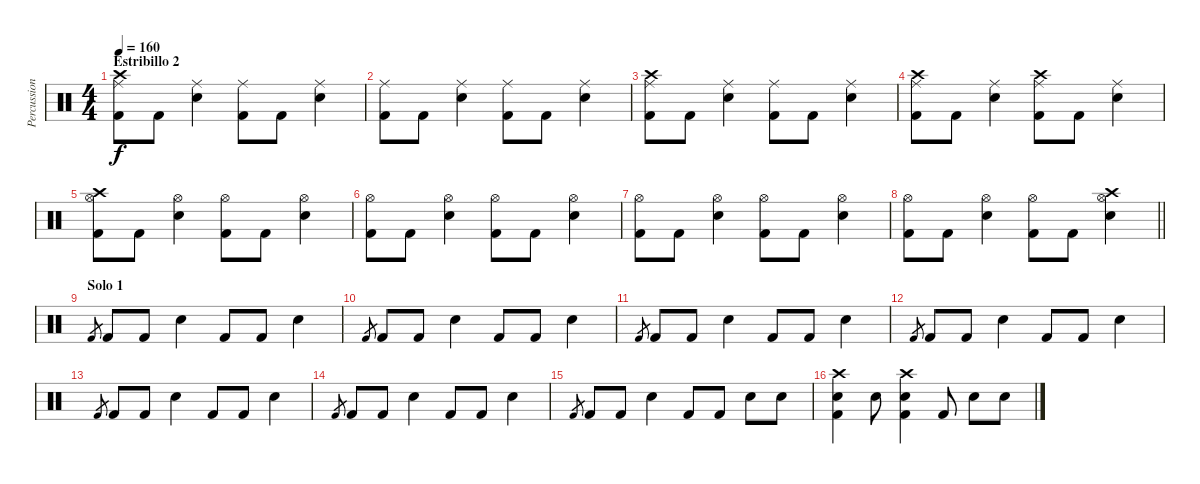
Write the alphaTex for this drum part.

\track ("Percussion" "Percussion") {instrument percussion}
\staff {score}
\articulation defaults
\ts (4 4)
\section ("" "Estribillo 2")
\tempo 160
\clef neutral
\ks c
("Ride (middle)" "Crash high (hit)" "Kick (hit) 2").8{dy f} "Kick (hit) 2".8 ("Ride (middle)" "Snare (hit) 2").4 ("Ride (middle)" "Kick (hit) 2").8 "Kick (hit) 2".8 ("Ride (middle)" "Snare (hit) 2").4 |
("Ride (middle)" "Kick (hit) 2").8 "Kick (hit) 2".8 ("Ride (middle)" "Snare (hit) 2").4 ("Ride (middle)" "Kick (hit) 2").8 "Kick (hit) 2".8 ("Ride (middle)" "Snare (hit) 2").4 |
("Ride (middle)" "Crash high (hit)" "Kick (hit) 2").8 "Kick (hit) 2".8 ("Ride (middle)" "Snare (hit) 2").4 ("Ride (middle)" "Kick (hit) 2").8 "Kick (hit) 2".8 ("Ride (middle)" "Snare (hit) 2").4 |
("Ride (middle)" "Crash high (hit)" "Kick (hit) 2").8 "Kick (hit) 2".8 ("Ride (middle)" "Snare (hit) 2").4 ("Ride (middle)" "Crash high (hit)" "Kick (hit) 2").8 "Kick (hit) 2".8 ("Ride (middle)" "Snare (hit) 2").4 |
("Hi-Hat (open)" "Crash high (hit)" "Kick (hit) 2").8 "Kick (hit) 2".8 ("Hi-Hat (open)" "Snare (hit) 2").4 ("Hi-Hat (open)" "Kick (hit) 2").8 "Kick (hit) 2".8 ("Hi-Hat (open)" "Snare (hit) 2").4 |
("Hi-Hat (open)" "Kick (hit) 2").8 "Kick (hit) 2".8 ("Hi-Hat (open)" "Snare (hit) 2").4 ("Hi-Hat (open)" "Kick (hit) 2").8 "Kick (hit) 2".8 ("Hi-Hat (open)" "Snare (hit) 2").4 |
("Hi-Hat (open)" "Kick (hit) 2").8 "Kick (hit) 2".8 ("Hi-Hat (open)" "Snare (hit) 2").4 ("Hi-Hat (open)" "Kick (hit) 2").8 "Kick (hit) 2".8 ("Hi-Hat (open)" "Snare (hit) 2").4 |
\barLineRight lightlight
("Hi-Hat (open)" "Kick (hit) 2").8 "Kick (hit) 2".8 ("Hi-Hat (open)" "Snare (hit) 2").4 ("Hi-Hat (open)" "Kick (hit) 2").8 "Kick (hit) 2".8 ("Hi-Hat (open)" "Crash high (hit)" "Snare (hit) 2").4 |
\section ("" "Solo 1")
"Kick (hit) 2".8{gr} "Kick (hit) 2".8 "Kick (hit) 2".8 "Snare (hit) 2".4 "Kick (hit) 2".8 "Kick (hit) 2".8 "Snare (hit) 2".4 |
"Kick (hit) 2".8{gr} "Kick (hit) 2".8 "Kick (hit) 2".8 "Snare (hit) 2".4 "Kick (hit) 2".8 "Kick (hit) 2".8 "Snare (hit) 2".4 |
"Kick (hit) 2".8{gr} "Kick (hit) 2".8 "Kick (hit) 2".8 "Snare (hit) 2".4 "Kick (hit) 2".8 "Kick (hit) 2".8 "Snare (hit) 2".4 |
"Kick (hit) 2".8{gr} "Kick (hit) 2".8 "Kick (hit) 2".8 "Snare (hit) 2".4 "Kick (hit) 2".8 "Kick (hit) 2".8 "Snare (hit) 2".4 |
"Kick (hit) 2".8{gr} "Kick (hit) 2".8 "Kick (hit) 2".8 "Snare (hit) 2".4 "Kick (hit) 2".8 "Kick (hit) 2".8 "Snare (hit) 2".4 |
"Kick (hit) 2".8{gr} "Kick (hit) 2".8 "Kick (hit) 2".8 "Snare (hit) 2".4 "Kick (hit) 2".8 "Kick (hit) 2".8 "Snare (hit) 2".4 |
"Kick (hit) 2".8{gr} "Kick (hit) 2".8 "Kick (hit) 2".8 "Snare (hit) 2".4 "Kick (hit) 2".8 "Kick (hit) 2".8 "Snare (hit) 2".8 "Snare (hit) 2".8 |
("Crash high (hit)" "Snare (hit) 2" "Kick (hit) 2").4 "Snare (hit) 2".8 ("Crash high (hit)" "Snare (hit) 2" "Kick (hit) 2").4 "Kick (hit) 2".8 "Snare (hit) 2".8 "Snare (hit) 2".8
